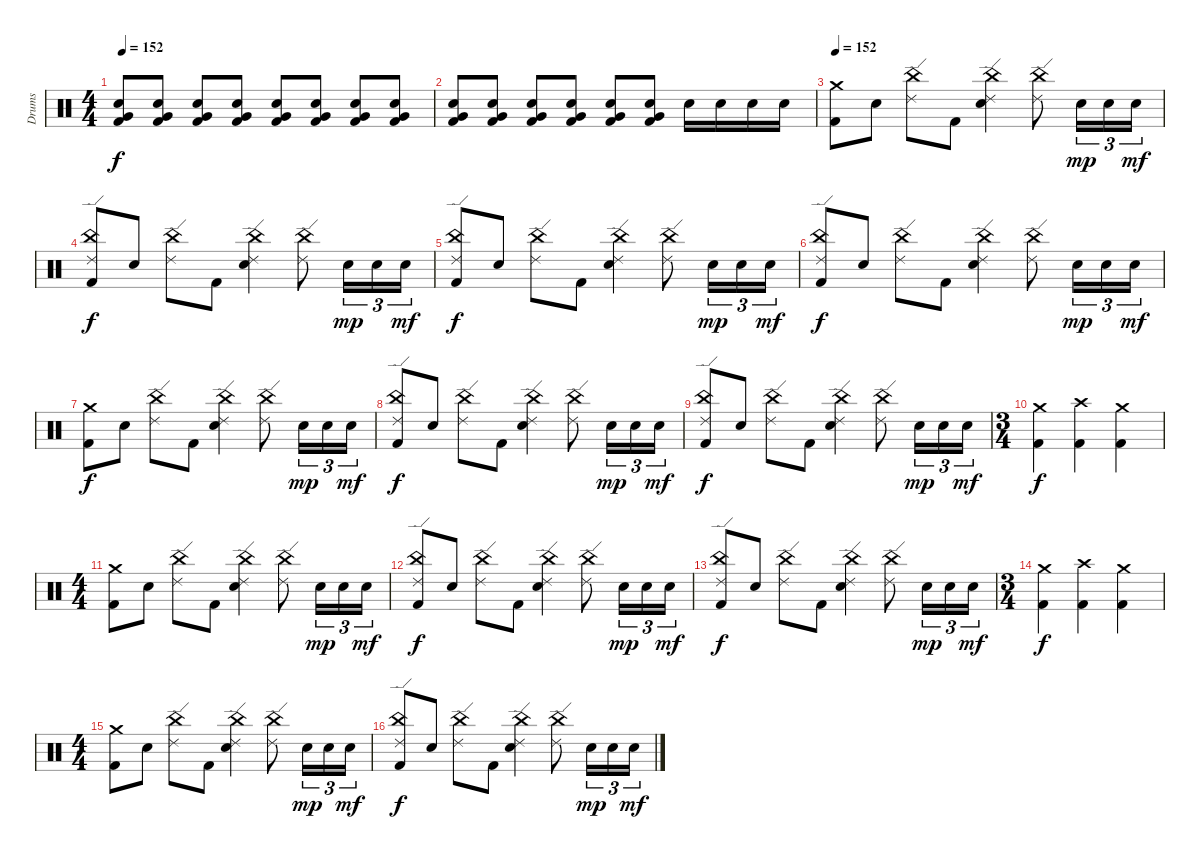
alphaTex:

\track ("Drums" "Drums") {instrument percussion}
\staff {score}
\articulation defaults
\ts (4 4)
\tempo 152
\clef neutral
\ks c
("Very Low Tom (hit)" "Snare (hit) 2" "Kick (hit) 2").8{dy f} ("Very Low Tom (hit)" "Snare (hit) 2" "Kick (hit) 2").8 ("Very Low Tom (hit)" "Snare (hit) 2" "Kick (hit) 2").8 ("Very Low Tom (hit)" "Snare (hit) 2" "Kick (hit) 2").8 ("Very Low Tom (hit)" "Snare (hit) 2" "Kick (hit) 2").8 ("Very Low Tom (hit)" "Snare (hit) 2" "Kick (hit) 2").8 ("Very Low Tom (hit)" "Snare (hit) 2" "Kick (hit) 2").8 ("Very Low Tom (hit)" "Snare (hit) 2" "Kick (hit) 2").8 |
("Very Low Tom (hit)" "Snare (hit) 2" "Kick (hit) 2").8 ("Very Low Tom (hit)" "Snare (hit) 2" "Kick (hit) 2").8 ("Very Low Tom (hit)" "Snare (hit) 2" "Kick (hit) 2").8 ("Very Low Tom (hit)" "Snare (hit) 2" "Kick (hit) 2").8 ("Very Low Tom (hit)" "Snare (hit) 2" "Kick (hit) 2").8 ("Very Low Tom (hit)" "Snare (hit) 2" "Kick (hit) 2").8 "Snare (hit) 2".16 "Snare (hit) 2".16 "Snare (hit) 2".16 "Snare (hit) 2".16 |
\tempo 152
("Crash medium (hit)" "Kick (hit) 2").8 "Snare (hit) 2".8 ("China (hit)" "Ride (edge) 2").8 "Kick (hit) 2".8 ("China (hit)" "Ride (edge) 2" "Snare (hit) 2").4 ("China (hit)" "Ride (edge) 2").8 "Snare (hit) 2".16{tu (3 2) dy mp} "Snare (hit) 2".16{tu (3 2)} "Snare (hit) 2".16{tu (3 2) dy mf} |
("China (hit)" "Ride (edge) 2" "Kick (hit) 2").8{dy f} "Snare (hit) 2".8 ("China (hit)" "Ride (edge) 2").8 "Kick (hit) 2".8 ("China (hit)" "Ride (edge) 2" "Snare (hit) 2").4 ("China (hit)" "Ride (edge) 2").8 "Snare (hit) 2".16{tu (3 2) dy mp} "Snare (hit) 2".16{tu (3 2)} "Snare (hit) 2".16{tu (3 2) dy mf} |
("China (hit)" "Ride (edge) 2" "Kick (hit) 2").8{dy f} "Snare (hit) 2".8 ("China (hit)" "Ride (edge) 2").8 "Kick (hit) 2".8 ("China (hit)" "Ride (edge) 2" "Snare (hit) 2").4 ("China (hit)" "Ride (edge) 2").8 "Snare (hit) 2".16{tu (3 2) dy mp} "Snare (hit) 2".16{tu (3 2)} "Snare (hit) 2".16{tu (3 2) dy mf} |
("China (hit)" "Ride (edge) 2" "Kick (hit) 2").8{dy f} "Snare (hit) 2".8 ("China (hit)" "Ride (edge) 2").8 "Kick (hit) 2".8 ("China (hit)" "Ride (edge) 2" "Snare (hit) 2").4 ("China (hit)" "Ride (edge) 2").8 "Snare (hit) 2".16{tu (3 2) dy mp} "Snare (hit) 2".16{tu (3 2)} "Snare (hit) 2".16{tu (3 2) dy mf} |
("Crash medium (hit)" "Kick (hit) 2").8{dy f} "Snare (hit) 2".8 ("China (hit)" "Ride (edge) 2").8 "Kick (hit) 2".8 ("China (hit)" "Ride (edge) 2" "Snare (hit) 2").4 ("China (hit)" "Ride (edge) 2").8 "Snare (hit) 2".16{tu (3 2) dy mp} "Snare (hit) 2".16{tu (3 2)} "Snare (hit) 2".16{tu (3 2) dy mf} |
("China (hit)" "Ride (edge) 2" "Kick (hit) 2").8{dy f} "Snare (hit) 2".8 ("China (hit)" "Ride (edge) 2").8 "Kick (hit) 2".8 ("China (hit)" "Ride (edge) 2" "Snare (hit) 2").4 ("China (hit)" "Ride (edge) 2").8 "Snare (hit) 2".16{tu (3 2) dy mp} "Snare (hit) 2".16{tu (3 2)} "Snare (hit) 2".16{tu (3 2) dy mf} |
("China (hit)" "Ride (edge) 2" "Kick (hit) 2").8{dy f} "Snare (hit) 2".8 ("China (hit)" "Ride (edge) 2").8 "Kick (hit) 2".8 ("China (hit)" "Ride (edge) 2" "Snare (hit) 2").4 ("China (hit)" "Ride (edge) 2").8 "Snare (hit) 2".16{tu (3 2) dy mp} "Snare (hit) 2".16{tu (3 2)} "Snare (hit) 2".16{tu (3 2) dy mf} |
\ts (3 4)
("Crash medium (hit)" "Kick (hit) 2").4{dy f} ("Crash high (hit)" "Kick (hit) 2").4 ("Crash medium (hit)" "Kick (hit) 2").4 |
\ts (4 4)
("Crash medium (hit)" "Kick (hit) 2").8 "Snare (hit) 2".8 ("China (hit)" "Ride (edge) 2").8 "Kick (hit) 2".8 ("China (hit)" "Ride (edge) 2" "Snare (hit) 2").4 ("China (hit)" "Ride (edge) 2").8 "Snare (hit) 2".16{tu (3 2) dy mp} "Snare (hit) 2".16{tu (3 2)} "Snare (hit) 2".16{tu (3 2) dy mf} |
("China (hit)" "Ride (edge) 2" "Kick (hit) 2").8{dy f} "Snare (hit) 2".8 ("China (hit)" "Ride (edge) 2").8 "Kick (hit) 2".8 ("China (hit)" "Ride (edge) 2" "Snare (hit) 2").4 ("China (hit)" "Ride (edge) 2").8 "Snare (hit) 2".16{tu (3 2) dy mp} "Snare (hit) 2".16{tu (3 2)} "Snare (hit) 2".16{tu (3 2) dy mf} |
("China (hit)" "Ride (edge) 2" "Kick (hit) 2").8{dy f} "Snare (hit) 2".8 ("China (hit)" "Ride (edge) 2").8 "Kick (hit) 2".8 ("China (hit)" "Ride (edge) 2" "Snare (hit) 2").4 ("China (hit)" "Ride (edge) 2").8 "Snare (hit) 2".16{tu (3 2) dy mp} "Snare (hit) 2".16{tu (3 2)} "Snare (hit) 2".16{tu (3 2) dy mf} |
\ts (3 4)
("Crash medium (hit)" "Kick (hit) 2").4{dy f} ("Crash high (hit)" "Kick (hit) 2").4 ("Crash medium (hit)" "Kick (hit) 2").4 |
\ts (4 4)
("Crash medium (hit)" "Kick (hit) 2").8 "Snare (hit) 2".8 ("China (hit)" "Ride (edge) 2").8 "Kick (hit) 2".8 ("China (hit)" "Ride (edge) 2" "Snare (hit) 2").4 ("China (hit)" "Ride (edge) 2").8 "Snare (hit) 2".16{tu (3 2) dy mp} "Snare (hit) 2".16{tu (3 2)} "Snare (hit) 2".16{tu (3 2) dy mf} |
("China (hit)" "Ride (edge) 2" "Kick (hit) 2").8{dy f} "Snare (hit) 2".8 ("China (hit)" "Ride (edge) 2").8 "Kick (hit) 2".8 ("China (hit)" "Ride (edge) 2" "Snare (hit) 2").4 ("China (hit)" "Ride (edge) 2").8 "Snare (hit) 2".16{tu (3 2) dy mp} "Snare (hit) 2".16{tu (3 2)} "Snare (hit) 2".16{tu (3 2) dy mf}
